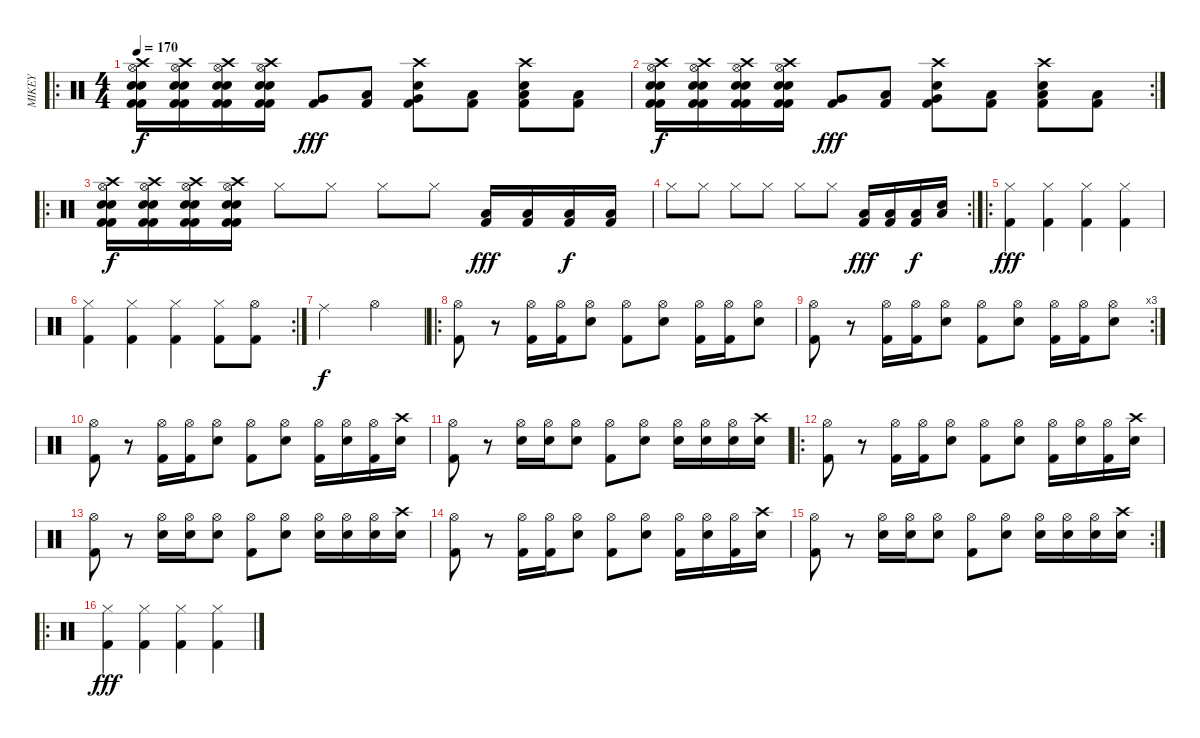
\track ("MIKEY" "MIKEY") {instrument percussion}
\staff {score}
\articulation defaults
\ro
\ts (4 4)
\tempo 170
\clef neutral
\ks c
("Crash high (hit)" "Hi-Hat (open)" "Kick (hit) 2" "Electric Snare (hit)" "Kick (hit) 2" "Snare (hit) 2").16{dy f} ("Crash high (hit)" "Hi-Hat (open)" "Kick (hit) 2" "Electric Snare (hit)" "Kick (hit) 2" "Snare (hit) 2").16 ("Crash high (hit)" "Hi-Hat (open)" "Kick (hit) 2" "Electric Snare (hit)" "Kick (hit) 2" "Snare (hit) 2").16 ("Crash high (hit)" "Hi-Hat (open)" "Kick (hit) 2" "Electric Snare (hit)" "Kick (hit) 2" "Snare (hit) 2").16 ("Kick (hit) 2" "Very Low Tom (hit)").8{dy fff} ("Kick (hit) 2" "Low Tom (hit)").8 ("Crash high (hit)" "Electric Snare (hit)" "Kick (hit) 2" "Very Low Tom (hit)").8 ("Kick (hit) 2" "Low Floor Tom (hit)").8 ("Crash high (hit)" "Electric Snare (hit)" "Kick (hit) 2" "Low Floor Tom (hit)").8 ("Kick (hit) 2" "Low Floor Tom (hit)").8 |
\rc 2
("Crash high (hit)" "Hi-Hat (open)" "Kick (hit) 2" "Electric Snare (hit)" "Kick (hit) 2" "Snare (hit) 2").16{dy f} ("Crash high (hit)" "Hi-Hat (open)" "Kick (hit) 2" "Electric Snare (hit)" "Kick (hit) 2" "Snare (hit) 2").16 ("Crash high (hit)" "Hi-Hat (open)" "Kick (hit) 2" "Electric Snare (hit)" "Kick (hit) 2" "Snare (hit) 2").16 ("Crash high (hit)" "Hi-Hat (open)" "Kick (hit) 2" "Electric Snare (hit)" "Kick (hit) 2" "Snare (hit) 2").16 ("Kick (hit) 2" "Very Low Tom (hit)").8{dy fff} ("Kick (hit) 2" "Low Tom (hit)").8 ("Crash high (hit)" "Electric Snare (hit)" "Kick (hit) 2" "Very Low Tom (hit)").8 ("Kick (hit) 2" "Low Floor Tom (hit)").8 ("Crash high (hit)" "Electric Snare (hit)" "Kick (hit) 2" "Low Floor Tom (hit)").8 ("Kick (hit) 2" "Low Floor Tom (hit)").8 |
\ro
("Crash high (hit)" "Hi-Hat (open)" "Kick (hit) 2" "Electric Snare (hit)" "Kick (hit) 2" "Snare (hit) 2").16{dy f} ("Crash high (hit)" "Hi-Hat (open)" "Kick (hit) 2" "Electric Snare (hit)" "Kick (hit) 2" "Snare (hit) 2").16 ("Crash high (hit)" "Hi-Hat (open)" "Kick (hit) 2" "Electric Snare (hit)" "Kick (hit) 2" "Snare (hit) 2").16 ("Crash high (hit)" "Hi-Hat (open)" "Kick (hit) 2" "Electric Snare (hit)" "Kick (hit) 2" "Snare (hit) 2").16 "Hi-Hat (closed)".8 "Hi-Hat (closed)".8 "Hi-Hat (closed)".8 "Hi-Hat (closed)".8 ("Kick (hit) 2" "Low Floor Tom (hit)").16{dy fff} ("Kick (hit) 2" "Low Floor Tom (hit)").16 ("Kick (hit) 2" "Low Floor Tom (hit)").16{dy f} ("Kick (hit) 2" "Low Floor Tom (hit)").16 |
\rc 2 "Hi-Hat (closed)".8 "Hi-Hat (closed)".8 "Hi-Hat (closed)".8 "Hi-Hat (closed)".8 "Hi-Hat (closed)".8 "Hi-Hat (closed)".8
("Kick (hit) 2" "Low Floor Tom (hit)").16{dy fff} ("Kick (hit) 2" "Low Floor Tom (hit)").16 ("Kick (hit) 2" "Low Floor Tom (hit)").16{dy f} ("Snare (hit)" "Low Floor Tom (hit)").16 |
\ro
("Hi-Hat (closed)" "Kick (hit) 2").4{dy fff} ("Hi-Hat (closed)" "Kick (hit) 2").4 ("Hi-Hat (closed)" "Kick (hit) 2").4 ("Hi-Hat (closed)" "Kick (hit) 2").4 |
\rc 2
("Hi-Hat (closed)" "Kick (hit) 2").4 ("Hi-Hat (closed)" "Kick (hit) 2").4 ("Hi-Hat (closed)" "Kick (hit) 2").4 ("Hi-Hat (closed)" "Kick (hit) 2").8 ("Hi-Hat (open)" "Kick (hit) 2").8 |
"Ride (middle)".2{dy f} "Hi-Hat (open)".2 |
\ro
("Hi-Hat (open)" "Kick (hit) 2").8 r.8 ("Hi-Hat (open)" "Kick (hit) 2").16 ("Hi-Hat (open)" "Kick (hit) 2").16 ("Hi-Hat (open)" "Electric Snare (hit)").8 ("Hi-Hat (open)" "Kick (hit) 2").8 ("Hi-Hat (open)" "Electric Snare (hit)").8 ("Hi-Hat (open)" "Kick (hit) 2").16 ("Hi-Hat (open)" "Kick (hit) 2").16 ("Hi-Hat (open)" "Electric Snare (hit)").8 |
\rc 3
("Hi-Hat (open)" "Kick (hit) 2").8 r.8 ("Hi-Hat (open)" "Kick (hit) 2").16 ("Hi-Hat (open)" "Kick (hit) 2").16 ("Hi-Hat (open)" "Electric Snare (hit)").8 ("Hi-Hat (open)" "Kick (hit) 2").8 ("Hi-Hat (open)" "Electric Snare (hit)").8 ("Hi-Hat (open)" "Kick (hit) 2").16 ("Hi-Hat (open)" "Kick (hit) 2").16 ("Hi-Hat (open)" "Electric Snare (hit)").8 |
("Hi-Hat (open)" "Kick (hit) 2").8 r.8 ("Hi-Hat (open)" "Kick (hit) 2").16 ("Hi-Hat (open)" "Kick (hit) 2").16 ("Hi-Hat (open)" "Electric Snare (hit)").8 ("Hi-Hat (open)" "Kick (hit) 2").8 ("Hi-Hat (open)" "Electric Snare (hit)").8 ("Hi-Hat (open)" "Kick (hit) 2").16 ("Hi-Hat (open)" "Electric Snare (hit)").16 ("Hi-Hat (open)" "Kick (hit) 2").16 ("Crash high (hit)" "Electric Snare (hit)").16 |
("Hi-Hat (open)" "Kick (hit) 2").8 r.8 ("Hi-Hat (open)" "Electric Snare (hit)").16 ("Hi-Hat (open)" "Electric Snare (hit)").16 ("Hi-Hat (open)" "Electric Snare (hit)").8 ("Hi-Hat (open)" "Kick (hit) 2").8 ("Hi-Hat (open)" "Electric Snare (hit)").8 ("Hi-Hat (open)" "Electric Snare (hit)").16 ("Hi-Hat (open)" "Electric Snare (hit)").16 ("Hi-Hat (open)" "Electric Snare (hit)").16 ("Crash high (hit)" "Electric Snare (hit)").16 |
\ro
("Hi-Hat (open)" "Kick (hit) 2").8 r.8 ("Hi-Hat (open)" "Kick (hit) 2").16 ("Hi-Hat (open)" "Kick (hit) 2").16 ("Hi-Hat (open)" "Electric Snare (hit)").8 ("Hi-Hat (open)" "Kick (hit) 2").8 ("Hi-Hat (open)" "Electric Snare (hit)").8 ("Hi-Hat (open)" "Kick (hit) 2").16 ("Hi-Hat (open)" "Electric Snare (hit)").16 ("Hi-Hat (open)" "Kick (hit) 2").16 ("Crash high (hit)" "Electric Snare (hit)").16 |
("Hi-Hat (open)" "Kick (hit) 2").8 r.8 ("Hi-Hat (open)" "Electric Snare (hit)").16 ("Hi-Hat (open)" "Electric Snare (hit)").16 ("Hi-Hat (open)" "Electric Snare (hit)").8 ("Hi-Hat (open)" "Kick (hit) 2").8 ("Hi-Hat (open)" "Electric Snare (hit)").8 ("Hi-Hat (open)" "Electric Snare (hit)").16 ("Hi-Hat (open)" "Electric Snare (hit)").16 ("Hi-Hat (open)" "Electric Snare (hit)").16 ("Crash high (hit)" "Electric Snare (hit)").16 |
("Hi-Hat (open)" "Kick (hit) 2").8 r.8 ("Hi-Hat (open)" "Kick (hit) 2").16 ("Hi-Hat (open)" "Kick (hit) 2").16 ("Hi-Hat (open)" "Electric Snare (hit)").8 ("Hi-Hat (open)" "Kick (hit) 2").8 ("Hi-Hat (open)" "Electric Snare (hit)").8 ("Hi-Hat (open)" "Kick (hit) 2").16 ("Hi-Hat (open)" "Electric Snare (hit)").16 ("Hi-Hat (open)" "Kick (hit) 2").16 ("Crash high (hit)" "Electric Snare (hit)").16 |
\rc 2
("Hi-Hat (open)" "Kick (hit) 2").8 r.8 ("Hi-Hat (open)" "Electric Snare (hit)").16 ("Hi-Hat (open)" "Electric Snare (hit)").16 ("Hi-Hat (open)" "Electric Snare (hit)").8 ("Hi-Hat (open)" "Kick (hit) 2").8 ("Hi-Hat (open)" "Electric Snare (hit)").8 ("Hi-Hat (open)" "Electric Snare (hit)").16 ("Hi-Hat (open)" "Electric Snare (hit)").16 ("Hi-Hat (open)" "Electric Snare (hit)").16 ("Crash high (hit)" "Electric Snare (hit)").16 |
\ro
("Hi-Hat (closed)" "Kick (hit) 2").4{dy fff} ("Hi-Hat (closed)" "Kick (hit) 2").4 ("Hi-Hat (closed)" "Kick (hit) 2").4 ("Hi-Hat (closed)" "Kick (hit) 2").4
